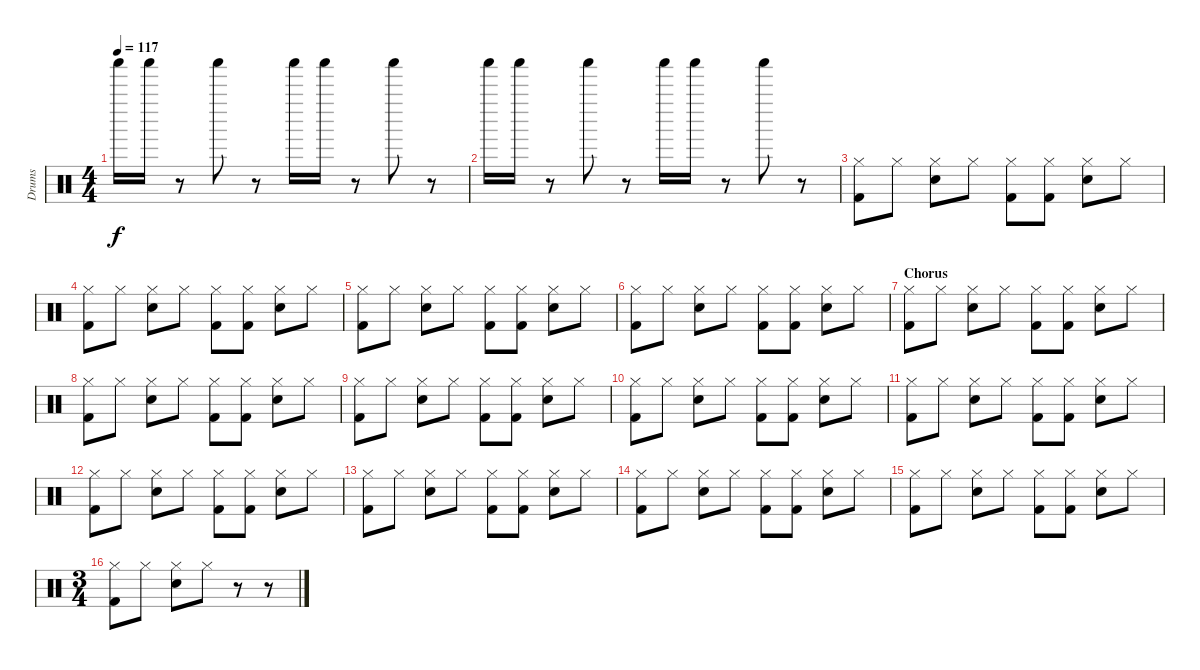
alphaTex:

\track ("Drums" "Drums") {instrument percussion}
\staff {score}
\articulation defaults
\ts (4 4)
\tempo 117
\clef neutral
\ks c "Shaker (hit)".16{dy f} "Shaker (hit)".16
r.8 "Shaker (hit)".8 r.8 "Shaker (hit)".16 "Shaker (hit)".16 r.8 "Shaker (hit)".8 r.8 |
"Shaker (hit)".16 "Shaker (hit)".16 r.8 "Shaker (hit)".8 r.8 "Shaker (hit)".16 "Shaker (hit)".16 r.8 "Shaker (hit)".8 r.8 |
("Hi-Hat (closed)" "Kick (hit) 2").8 "Hi-Hat (closed)".8 ("Hi-Hat (closed)" "Snare (hit) 2").8 "Hi-Hat (closed)".8 ("Hi-Hat (closed)" "Kick (hit) 2").8 ("Hi-Hat (closed)" "Kick (hit) 2").8 ("Hi-Hat (closed)" "Snare (hit) 2").8 "Hi-Hat (closed)".8 |
("Hi-Hat (closed)" "Kick (hit) 2").8 "Hi-Hat (closed)".8 ("Hi-Hat (closed)" "Snare (hit) 2").8 "Hi-Hat (closed)".8 ("Hi-Hat (closed)" "Kick (hit) 2").8 ("Hi-Hat (closed)" "Kick (hit) 2").8 ("Hi-Hat (closed)" "Snare (hit) 2").8 "Hi-Hat (closed)".8 |
("Hi-Hat (closed)" "Kick (hit) 2").8 "Hi-Hat (closed)".8 ("Hi-Hat (closed)" "Snare (hit) 2").8 "Hi-Hat (closed)".8 ("Hi-Hat (closed)" "Kick (hit) 2").8 ("Hi-Hat (closed)" "Kick (hit) 2").8 ("Hi-Hat (closed)" "Snare (hit) 2").8 "Hi-Hat (closed)".8 |
("Hi-Hat (closed)" "Kick (hit) 2").8 "Hi-Hat (closed)".8 ("Hi-Hat (closed)" "Snare (hit) 2").8 "Hi-Hat (closed)".8 ("Hi-Hat (closed)" "Kick (hit) 2").8 ("Hi-Hat (closed)" "Kick (hit) 2").8 ("Hi-Hat (closed)" "Snare (hit) 2").8 "Hi-Hat (closed)".8 |
\section ("" "Chorus")
("Hi-Hat (closed)" "Kick (hit) 2").8 "Hi-Hat (closed)".8 ("Hi-Hat (closed)" "Snare (hit) 2").8 "Hi-Hat (closed)".8 ("Hi-Hat (closed)" "Kick (hit) 2").8 ("Hi-Hat (closed)" "Kick (hit) 2").8 ("Hi-Hat (closed)" "Snare (hit) 2").8 "Hi-Hat (closed)".8 |
("Hi-Hat (closed)" "Kick (hit) 2").8 "Hi-Hat (closed)".8 ("Hi-Hat (closed)" "Snare (hit) 2").8 "Hi-Hat (closed)".8 ("Hi-Hat (closed)" "Kick (hit) 2").8 ("Hi-Hat (closed)" "Kick (hit) 2").8 ("Hi-Hat (closed)" "Snare (hit) 2").8 "Hi-Hat (closed)".8 |
("Hi-Hat (closed)" "Kick (hit) 2").8 "Hi-Hat (closed)".8 ("Hi-Hat (closed)" "Snare (hit) 2").8 "Hi-Hat (closed)".8 ("Hi-Hat (closed)" "Kick (hit) 2").8 ("Hi-Hat (closed)" "Kick (hit) 2").8 ("Hi-Hat (closed)" "Snare (hit) 2").8 "Hi-Hat (closed)".8 |
("Hi-Hat (closed)" "Kick (hit) 2").8 "Hi-Hat (closed)".8 ("Hi-Hat (closed)" "Snare (hit) 2").8 "Hi-Hat (closed)".8 ("Hi-Hat (closed)" "Kick (hit) 2").8 ("Hi-Hat (closed)" "Kick (hit) 2").8 ("Hi-Hat (closed)" "Snare (hit) 2").8 "Hi-Hat (closed)".8 |
("Hi-Hat (closed)" "Kick (hit) 2").8 "Hi-Hat (closed)".8 ("Hi-Hat (closed)" "Snare (hit) 2").8 "Hi-Hat (closed)".8 ("Hi-Hat (closed)" "Kick (hit) 2").8 ("Hi-Hat (closed)" "Kick (hit) 2").8 ("Hi-Hat (closed)" "Snare (hit) 2").8 "Hi-Hat (closed)".8 |
("Hi-Hat (closed)" "Kick (hit) 2").8 "Hi-Hat (closed)".8 ("Hi-Hat (closed)" "Snare (hit) 2").8 "Hi-Hat (closed)".8 ("Hi-Hat (closed)" "Kick (hit) 2").8 ("Hi-Hat (closed)" "Kick (hit) 2").8 ("Hi-Hat (closed)" "Snare (hit) 2").8 "Hi-Hat (closed)".8 |
("Hi-Hat (closed)" "Kick (hit) 2").8 "Hi-Hat (closed)".8 ("Hi-Hat (closed)" "Snare (hit) 2").8 "Hi-Hat (closed)".8 ("Hi-Hat (closed)" "Kick (hit) 2").8 ("Hi-Hat (closed)" "Kick (hit) 2").8 ("Hi-Hat (closed)" "Snare (hit) 2").8 "Hi-Hat (closed)".8 |
("Hi-Hat (closed)" "Kick (hit) 2").8 "Hi-Hat (closed)".8 ("Hi-Hat (closed)" "Snare (hit) 2").8 "Hi-Hat (closed)".8 ("Hi-Hat (closed)" "Kick (hit) 2").8 ("Hi-Hat (closed)" "Kick (hit) 2").8 ("Hi-Hat (closed)" "Snare (hit) 2").8 "Hi-Hat (closed)".8 |
("Hi-Hat (closed)" "Kick (hit) 2").8 "Hi-Hat (closed)".8 ("Hi-Hat (closed)" "Snare (hit) 2").8 "Hi-Hat (closed)".8 ("Hi-Hat (closed)" "Kick (hit) 2").8 ("Hi-Hat (closed)" "Kick (hit) 2").8 ("Hi-Hat (closed)" "Snare (hit) 2").8 "Hi-Hat (closed)".8 |
\ts (3 4)
("Hi-Hat (closed)" "Kick (hit) 2").8 "Hi-Hat (closed)".8 ("Hi-Hat (closed)" "Snare (hit) 2").8 "Hi-Hat (closed)".8 r.8 r.8
